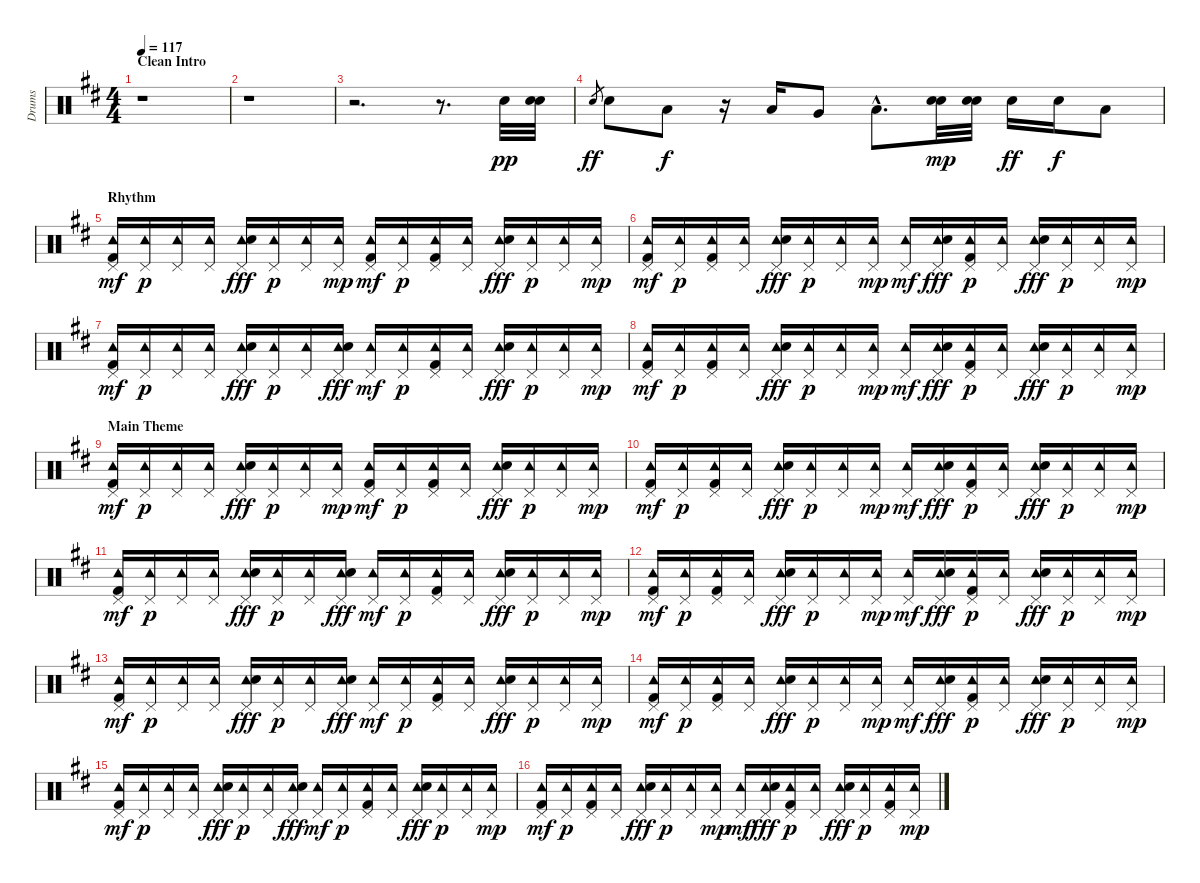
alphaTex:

\track ("Drums" "Drums") {instrument percussion}
\staff {score}
\articulation defaults
\ts (4 4)
\section ("" "Clean Intro")
\tempo 117
\clef neutral
\ks d
r.1{dy pp} |
r.1 |
r.2{d} r.8{d} "Snare (hit) 2".32 ("Snare (hit) 2" "Electric Snare (hit)").32 |
"Electric Snare (hit)".8{gr dy ff} "Electric Snare (hit)".8 "Low Tom (hit)".8{dy f} r.16 "Low Tom (hit)".16 "Very Low Tom (hit)".8 "Low Floor Tom (hit)"{hac}.8{d} ("Snare (hit) 2" "Snare (hit) 2").32{dy mp} ("Electric Snare (hit)" "Electric Snare (hit)").32 "Electric Snare (hit)".16{dy ff} "Electric Snare (hit)".16{dy f} "Low Floor Tom (hit)".8 |
\section ("" "Rhythm")
("Pedal Hi-Hat (hit)" "Tambourine (hit)" "Kick (hit) 2").16{dy mf} ("Pedal Hi-Hat (hit)" "Tambourine (hit)").16{dy p} ("Pedal Hi-Hat (hit)" "Tambourine (hit)").16 ("Pedal Hi-Hat (hit)" "Tambourine (hit)").16 ("Pedal Hi-Hat (hit)" "Tambourine (hit)" "Electric Snare (hit)").16{dy fff} ("Pedal Hi-Hat (hit)" "Tambourine (hit)").16{dy p} ("Pedal Hi-Hat (hit)" "Tambourine (hit)").16 ("Pedal Hi-Hat (hit)" "Tambourine (hit)").16{dy mp} ("Pedal Hi-Hat (hit)" "Tambourine (hit)" "Kick (hit) 2").16{dy mf} ("Pedal Hi-Hat (hit)" "Tambourine (hit)").16{dy p} ("Pedal Hi-Hat (hit)" "Tambourine (hit)" "Kick (hit) 2").16 ("Pedal Hi-Hat (hit)" "Tambourine (hit)").16 ("Pedal Hi-Hat (hit)" "Tambourine (hit)" "Electric Snare (hit)").16{dy fff} ("Pedal Hi-Hat (hit)" "Tambourine (hit)").16{dy p} ("Pedal Hi-Hat (hit)" "Tambourine (hit)").16 ("Pedal Hi-Hat (hit)" "Tambourine (hit)").16{dy mp} |
("Pedal Hi-Hat (hit)" "Tambourine (hit)" "Kick (hit) 2").16{dy mf} ("Pedal Hi-Hat (hit)" "Tambourine (hit)").16{dy p} ("Pedal Hi-Hat (hit)" "Tambourine (hit)" "Kick (hit) 2").16 ("Pedal Hi-Hat (hit)" "Tambourine (hit)").16 ("Pedal Hi-Hat (hit)" "Tambourine (hit)" "Electric Snare (hit)").16{dy fff} ("Pedal Hi-Hat (hit)" "Tambourine (hit)").16{dy p} ("Pedal Hi-Hat (hit)" "Tambourine (hit)").16 ("Pedal Hi-Hat (hit)" "Tambourine (hit)").16{dy mp} ("Pedal Hi-Hat (hit)" "Tambourine (hit)").16{dy mf} ("Pedal Hi-Hat (hit)" "Tambourine (hit)" "Electric Snare (hit)").16{dy fff} ("Pedal Hi-Hat (hit)" "Tambourine (hit)" "Kick (hit) 2").16{dy p} ("Pedal Hi-Hat (hit)" "Tambourine (hit)").16 ("Pedal Hi-Hat (hit)" "Tambourine (hit)" "Electric Snare (hit)").16{dy fff} ("Pedal Hi-Hat (hit)" "Tambourine (hit)").16{dy p} ("Pedal Hi-Hat (hit)" "Tambourine (hit)").16 ("Pedal Hi-Hat (hit)" "Tambourine (hit)").16{dy mp} |
("Pedal Hi-Hat (hit)" "Tambourine (hit)" "Kick (hit) 2").16{dy mf} ("Pedal Hi-Hat (hit)" "Tambourine (hit)").16{dy p} ("Pedal Hi-Hat (hit)" "Tambourine (hit)").16 ("Pedal Hi-Hat (hit)" "Tambourine (hit)").16 ("Pedal Hi-Hat (hit)" "Tambourine (hit)" "Electric Snare (hit)").16{dy fff} ("Pedal Hi-Hat (hit)" "Tambourine (hit)").16{dy p} ("Pedal Hi-Hat (hit)" "Tambourine (hit)").16 ("Pedal Hi-Hat (hit)" "Tambourine (hit)" "Electric Snare (hit)").16{dy fff} ("Pedal Hi-Hat (hit)" "Tambourine (hit)").16{dy mf} ("Pedal Hi-Hat (hit)" "Tambourine (hit)").16{dy p} ("Pedal Hi-Hat (hit)" "Tambourine (hit)" "Kick (hit) 2").16 ("Pedal Hi-Hat (hit)" "Tambourine (hit)").16 ("Pedal Hi-Hat (hit)" "Tambourine (hit)" "Electric Snare (hit)").16{dy fff} ("Pedal Hi-Hat (hit)" "Tambourine (hit)").16{dy p} ("Pedal Hi-Hat (hit)" "Tambourine (hit)").16 ("Pedal Hi-Hat (hit)" "Tambourine (hit)").16{dy mp} |
("Pedal Hi-Hat (hit)" "Tambourine (hit)" "Kick (hit) 2").16{dy mf} ("Pedal Hi-Hat (hit)" "Tambourine (hit)").16{dy p} ("Pedal Hi-Hat (hit)" "Tambourine (hit)" "Kick (hit) 2").16 ("Pedal Hi-Hat (hit)" "Tambourine (hit)").16 ("Pedal Hi-Hat (hit)" "Tambourine (hit)" "Electric Snare (hit)").16{dy fff} ("Pedal Hi-Hat (hit)" "Tambourine (hit)").16{dy p} ("Pedal Hi-Hat (hit)" "Tambourine (hit)").16 ("Pedal Hi-Hat (hit)" "Tambourine (hit)").16{dy mp} ("Pedal Hi-Hat (hit)" "Tambourine (hit)").16{dy mf} ("Pedal Hi-Hat (hit)" "Tambourine (hit)" "Electric Snare (hit)").16{dy fff} ("Pedal Hi-Hat (hit)" "Tambourine (hit)" "Kick (hit) 2").16{dy p} ("Pedal Hi-Hat (hit)" "Tambourine (hit)").16 ("Pedal Hi-Hat (hit)" "Tambourine (hit)" "Electric Snare (hit)").16{dy fff} ("Pedal Hi-Hat (hit)" "Tambourine (hit)").16{dy p} ("Pedal Hi-Hat (hit)" "Tambourine (hit)").16 ("Pedal Hi-Hat (hit)" "Tambourine (hit)").16{dy mp} |
\section ("" "Main Theme")
("Pedal Hi-Hat (hit)" "Tambourine (hit)" "Kick (hit) 2").16{dy mf} ("Pedal Hi-Hat (hit)" "Tambourine (hit)").16{dy p} ("Pedal Hi-Hat (hit)" "Tambourine (hit)").16 ("Pedal Hi-Hat (hit)" "Tambourine (hit)").16 ("Pedal Hi-Hat (hit)" "Tambourine (hit)" "Electric Snare (hit)").16{dy fff} ("Pedal Hi-Hat (hit)" "Tambourine (hit)").16{dy p} ("Pedal Hi-Hat (hit)" "Tambourine (hit)").16 ("Pedal Hi-Hat (hit)" "Tambourine (hit)").16{dy mp} ("Pedal Hi-Hat (hit)" "Tambourine (hit)" "Kick (hit) 2").16{dy mf} ("Pedal Hi-Hat (hit)" "Tambourine (hit)").16{dy p} ("Pedal Hi-Hat (hit)" "Tambourine (hit)" "Kick (hit) 2").16 ("Pedal Hi-Hat (hit)" "Tambourine (hit)").16 ("Pedal Hi-Hat (hit)" "Tambourine (hit)" "Electric Snare (hit)").16{dy fff} ("Pedal Hi-Hat (hit)" "Tambourine (hit)").16{dy p} ("Pedal Hi-Hat (hit)" "Tambourine (hit)").16 ("Pedal Hi-Hat (hit)" "Tambourine (hit)").16{dy mp} |
("Pedal Hi-Hat (hit)" "Tambourine (hit)" "Kick (hit) 2").16{dy mf} ("Pedal Hi-Hat (hit)" "Tambourine (hit)").16{dy p} ("Pedal Hi-Hat (hit)" "Tambourine (hit)" "Kick (hit) 2").16 ("Pedal Hi-Hat (hit)" "Tambourine (hit)").16 ("Pedal Hi-Hat (hit)" "Tambourine (hit)" "Electric Snare (hit)").16{dy fff} ("Pedal Hi-Hat (hit)" "Tambourine (hit)").16{dy p} ("Pedal Hi-Hat (hit)" "Tambourine (hit)").16 ("Pedal Hi-Hat (hit)" "Tambourine (hit)").16{dy mp} ("Pedal Hi-Hat (hit)" "Tambourine (hit)").16{dy mf} ("Pedal Hi-Hat (hit)" "Tambourine (hit)" "Electric Snare (hit)").16{dy fff} ("Pedal Hi-Hat (hit)" "Tambourine (hit)" "Kick (hit) 2").16{dy p} ("Pedal Hi-Hat (hit)" "Tambourine (hit)").16 ("Pedal Hi-Hat (hit)" "Tambourine (hit)" "Electric Snare (hit)").16{dy fff} ("Pedal Hi-Hat (hit)" "Tambourine (hit)").16{dy p} ("Pedal Hi-Hat (hit)" "Tambourine (hit)").16 ("Pedal Hi-Hat (hit)" "Tambourine (hit)").16{dy mp} |
("Pedal Hi-Hat (hit)" "Tambourine (hit)" "Kick (hit) 2").16{dy mf} ("Pedal Hi-Hat (hit)" "Tambourine (hit)").16{dy p} ("Pedal Hi-Hat (hit)" "Tambourine (hit)").16 ("Pedal Hi-Hat (hit)" "Tambourine (hit)").16 ("Pedal Hi-Hat (hit)" "Tambourine (hit)" "Electric Snare (hit)").16{dy fff} ("Pedal Hi-Hat (hit)" "Tambourine (hit)").16{dy p} ("Pedal Hi-Hat (hit)" "Tambourine (hit)").16 ("Pedal Hi-Hat (hit)" "Tambourine (hit)" "Electric Snare (hit)").16{dy fff} ("Pedal Hi-Hat (hit)" "Tambourine (hit)").16{dy mf} ("Pedal Hi-Hat (hit)" "Tambourine (hit)").16{dy p} ("Pedal Hi-Hat (hit)" "Tambourine (hit)" "Kick (hit) 2").16 ("Pedal Hi-Hat (hit)" "Tambourine (hit)").16 ("Pedal Hi-Hat (hit)" "Tambourine (hit)" "Electric Snare (hit)").16{dy fff} ("Pedal Hi-Hat (hit)" "Tambourine (hit)").16{dy p} ("Pedal Hi-Hat (hit)" "Tambourine (hit)").16 ("Pedal Hi-Hat (hit)" "Tambourine (hit)").16{dy mp} |
("Pedal Hi-Hat (hit)" "Tambourine (hit)" "Kick (hit) 2").16{dy mf} ("Pedal Hi-Hat (hit)" "Tambourine (hit)").16{dy p} ("Pedal Hi-Hat (hit)" "Tambourine (hit)" "Kick (hit) 2").16 ("Pedal Hi-Hat (hit)" "Tambourine (hit)").16 ("Pedal Hi-Hat (hit)" "Tambourine (hit)" "Electric Snare (hit)").16{dy fff} ("Pedal Hi-Hat (hit)" "Tambourine (hit)").16{dy p} ("Pedal Hi-Hat (hit)" "Tambourine (hit)").16 ("Pedal Hi-Hat (hit)" "Tambourine (hit)").16{dy mp} ("Pedal Hi-Hat (hit)" "Tambourine (hit)").16{dy mf} ("Pedal Hi-Hat (hit)" "Tambourine (hit)" "Electric Snare (hit)").16{dy fff} ("Pedal Hi-Hat (hit)" "Tambourine (hit)" "Kick (hit) 2").16{dy p} ("Pedal Hi-Hat (hit)" "Tambourine (hit)").16 ("Pedal Hi-Hat (hit)" "Tambourine (hit)" "Electric Snare (hit)").16{dy fff} ("Pedal Hi-Hat (hit)" "Tambourine (hit)").16{dy p} ("Pedal Hi-Hat (hit)" "Tambourine (hit)").16 ("Pedal Hi-Hat (hit)" "Tambourine (hit)").16{dy mp} |
("Pedal Hi-Hat (hit)" "Tambourine (hit)" "Kick (hit) 2").16{dy mf} ("Pedal Hi-Hat (hit)" "Tambourine (hit)").16{dy p} ("Pedal Hi-Hat (hit)" "Tambourine (hit)").16 ("Pedal Hi-Hat (hit)" "Tambourine (hit)").16 ("Pedal Hi-Hat (hit)" "Tambourine (hit)" "Electric Snare (hit)").16{dy fff} ("Pedal Hi-Hat (hit)" "Tambourine (hit)").16{dy p} ("Pedal Hi-Hat (hit)" "Tambourine (hit)").16 ("Pedal Hi-Hat (hit)" "Tambourine (hit)" "Electric Snare (hit)").16{dy fff} ("Pedal Hi-Hat (hit)" "Tambourine (hit)").16{dy mf} ("Pedal Hi-Hat (hit)" "Tambourine (hit)").16{dy p} ("Pedal Hi-Hat (hit)" "Tambourine (hit)" "Kick (hit) 2").16 ("Pedal Hi-Hat (hit)" "Tambourine (hit)").16 ("Pedal Hi-Hat (hit)" "Tambourine (hit)" "Electric Snare (hit)").16{dy fff} ("Pedal Hi-Hat (hit)" "Tambourine (hit)").16{dy p} ("Pedal Hi-Hat (hit)" "Tambourine (hit)").16 ("Pedal Hi-Hat (hit)" "Tambourine (hit)").16{dy mp} |
("Pedal Hi-Hat (hit)" "Tambourine (hit)" "Kick (hit) 2").16{dy mf} ("Pedal Hi-Hat (hit)" "Tambourine (hit)").16{dy p} ("Pedal Hi-Hat (hit)" "Tambourine (hit)" "Kick (hit) 2").16 ("Pedal Hi-Hat (hit)" "Tambourine (hit)").16 ("Pedal Hi-Hat (hit)" "Tambourine (hit)" "Electric Snare (hit)").16{dy fff} ("Pedal Hi-Hat (hit)" "Tambourine (hit)").16{dy p} ("Pedal Hi-Hat (hit)" "Tambourine (hit)").16 ("Pedal Hi-Hat (hit)" "Tambourine (hit)").16{dy mp} ("Pedal Hi-Hat (hit)" "Tambourine (hit)").16{dy mf} ("Pedal Hi-Hat (hit)" "Tambourine (hit)" "Electric Snare (hit)").16{dy fff} ("Pedal Hi-Hat (hit)" "Tambourine (hit)" "Kick (hit) 2").16{dy p} ("Pedal Hi-Hat (hit)" "Tambourine (hit)").16 ("Pedal Hi-Hat (hit)" "Tambourine (hit)" "Electric Snare (hit)").16{dy fff} ("Pedal Hi-Hat (hit)" "Tambourine (hit)").16{dy p} ("Pedal Hi-Hat (hit)" "Tambourine (hit)").16 ("Pedal Hi-Hat (hit)" "Tambourine (hit)").16{dy mp} |
("Pedal Hi-Hat (hit)" "Tambourine (hit)" "Kick (hit) 2").16{dy mf} ("Pedal Hi-Hat (hit)" "Tambourine (hit)").16{dy p} ("Pedal Hi-Hat (hit)" "Tambourine (hit)").16 ("Pedal Hi-Hat (hit)" "Tambourine (hit)").16 ("Pedal Hi-Hat (hit)" "Tambourine (hit)" "Electric Snare (hit)").16{dy fff} ("Pedal Hi-Hat (hit)" "Tambourine (hit)").16{dy p} ("Pedal Hi-Hat (hit)" "Tambourine (hit)").16 ("Pedal Hi-Hat (hit)" "Tambourine (hit)" "Electric Snare (hit)").16{dy fff} ("Pedal Hi-Hat (hit)" "Tambourine (hit)").16{dy mf} ("Pedal Hi-Hat (hit)" "Tambourine (hit)").16{dy p} ("Pedal Hi-Hat (hit)" "Tambourine (hit)" "Kick (hit) 2").16 ("Pedal Hi-Hat (hit)" "Tambourine (hit)").16 ("Pedal Hi-Hat (hit)" "Tambourine (hit)" "Electric Snare (hit)").16{dy fff} ("Pedal Hi-Hat (hit)" "Tambourine (hit)").16{dy p} ("Pedal Hi-Hat (hit)" "Tambourine (hit)").16 ("Pedal Hi-Hat (hit)" "Tambourine (hit)").16{dy mp} |
("Pedal Hi-Hat (hit)" "Tambourine (hit)" "Kick (hit) 2").16{dy mf} ("Pedal Hi-Hat (hit)" "Tambourine (hit)").16{dy p} ("Pedal Hi-Hat (hit)" "Tambourine (hit)" "Kick (hit) 2").16 ("Pedal Hi-Hat (hit)" "Tambourine (hit)").16 ("Pedal Hi-Hat (hit)" "Tambourine (hit)" "Electric Snare (hit)").16{dy fff} ("Pedal Hi-Hat (hit)" "Tambourine (hit)").16{dy p} ("Pedal Hi-Hat (hit)" "Tambourine (hit)").16 ("Pedal Hi-Hat (hit)" "Tambourine (hit)").16{dy mp} ("Pedal Hi-Hat (hit)" "Tambourine (hit)").16{dy mf} ("Pedal Hi-Hat (hit)" "Tambourine (hit)" "Electric Snare (hit)").16{dy fff} ("Pedal Hi-Hat (hit)" "Tambourine (hit)" "Kick (hit) 2").16{dy p} ("Pedal Hi-Hat (hit)" "Tambourine (hit)").16 ("Pedal Hi-Hat (hit)" "Tambourine (hit)" "Electric Snare (hit)").16{dy fff} ("Pedal Hi-Hat (hit)" "Tambourine (hit)").16{dy p} ("Pedal Hi-Hat (hit)" "Tambourine (hit)" "Kick (hit) 2").16 ("Pedal Hi-Hat (hit)" "Tambourine (hit)").16{dy mp}
